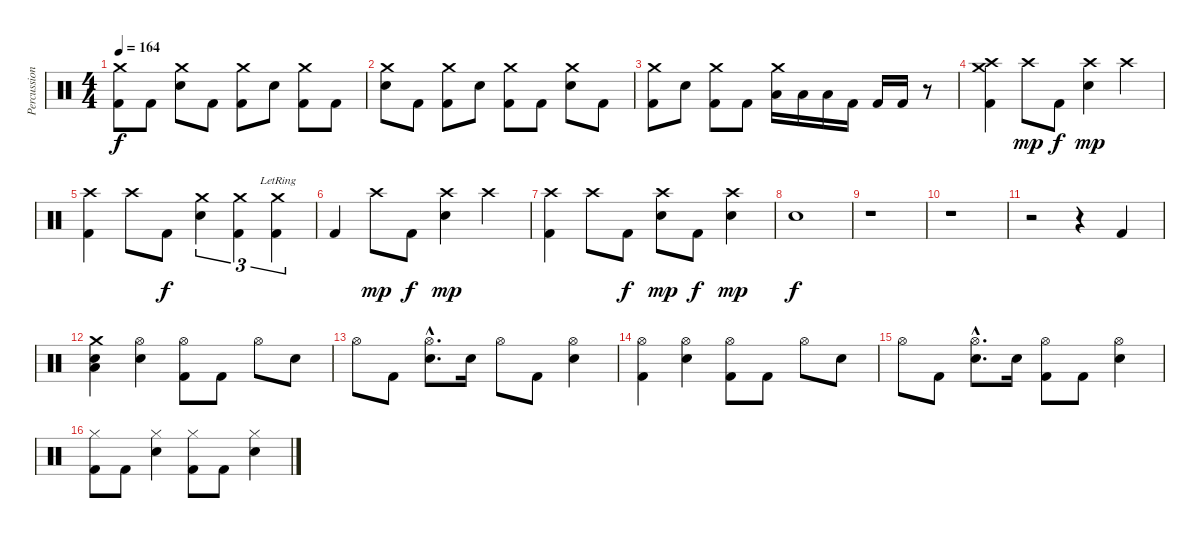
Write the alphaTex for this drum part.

\track ("Percussions" "Percussion") {instrument percussion}
\staff {score}
\articulation defaults
\ts (4 4)
\tempo 164
\clef neutral
\ks c
("Kick (hit) 2" "Crash medium (hit)").8{dy f} "Kick (hit) 2".8 ("Snare (hit) 2" "Crash medium (hit)").8 "Kick (hit) 2".8 ("Kick (hit) 2" "Crash medium (hit)").8 "Snare (hit) 2".8 ("Kick (hit) 2" "Crash medium (hit)").8 "Kick (hit) 2".8 |
("Snare (hit) 2" "Crash medium (hit)").8 "Kick (hit) 2".8 ("Kick (hit) 2" "Crash medium (hit)").8 "Snare (hit) 2".8 ("Kick (hit) 2" "Crash medium (hit)").8 "Kick (hit) 2".8 ("Snare (hit) 2" "Crash medium (hit)").8 "Kick (hit) 2".8 |
("Kick (hit) 2" "Crash medium (hit)").8 "Snare (hit) 2".8 ("Kick (hit) 2" "Crash medium (hit)").8 "Kick (hit) 2".8 ("Low Tom (hit)" "Crash medium (hit)").16 "Low Tom (hit)".16 "Low Tom (hit)".16 "Kick (hit) 2".16 "Kick (hit) 2".16 "Kick (hit) 2".16 r.8 |
("Kick (hit) 2" "Crash high (hit)" "Crash medium (hit)").4 "Crash high (hit)".8{dy mp} "Kick (hit) 2".8{dy f} ("Snare (hit) 2" "Crash high (hit)").4{dy mp} "Crash high (hit)".4 |
("Kick (hit) 2" "Crash high (hit)").4 "Crash high (hit)".8 "Kick (hit) 2".8{dy f} ("Snare (hit) 2" "Crash medium (hit)").4{tu (3 2)} ("Kick (hit) 2" "Crash medium (hit)").4{tu (3 2)} ("Kick (hit) 2" "Crash medium (hit)"{lr}).4{tu (3 2)} |
"Kick (hit) 2".4 "Crash high (hit)".8{dy mp} "Kick (hit) 2".8{dy f} ("Snare (hit) 2" "Crash high (hit)").4{dy mp} "Crash high (hit)".4 |
("Kick (hit) 2" "Crash high (hit)").4 "Crash high (hit)".8 "Kick (hit) 2".8{dy f} ("Snare (hit) 2" "Crash high (hit)").8{dy mp} "Kick (hit) 2".8{dy f} ("Snare (hit) 2" "Crash high (hit)").4{dy mp} |
"Snare (hit) 2".1{dy f} |
r.1 |
r.1 |
r.2 r.4 "Kick (hit) 2".4 |
("Snare (hit) 2" "Low Tom (hit)" "Crash medium (hit)").4 ("Snare (hit) 2" "Hi-Hat (open)").4 ("Kick (hit) 2" "Hi-Hat (open)").8 "Kick (hit) 2".8 "Hi-Hat (open)".8 "Snare (hit) 2".8 |
"Hi-Hat (open)".8 "Kick (hit) 2".8 ("Snare (hit) 2"{hac} "Hi-Hat (open)"{hac}).8{d} "Snare (hit) 2".16 "Hi-Hat (open)".8 "Kick (hit) 2".8 ("Snare (hit) 2" "Hi-Hat (open)").4 |
("Kick (hit) 2" "Hi-Hat (open)").4 ("Snare (hit) 2" "Hi-Hat (open)").4 ("Kick (hit) 2" "Hi-Hat (open)").8 "Kick (hit) 2".8 "Hi-Hat (open)".8 "Snare (hit) 2".8 |
"Hi-Hat (open)".8 "Kick (hit) 2".8 ("Snare (hit) 2"{hac} "Hi-Hat (open)"{hac}).8{d} "Snare (hit) 2".16 ("Kick (hit) 2" "Hi-Hat (open)").8 "Kick (hit) 2".8 ("Snare (hit) 2" "Hi-Hat (open)").4 |
("Kick (hit) 2" "Hi-Hat (closed)").8 "Kick (hit) 2".8 ("Snare (hit) 2" "Hi-Hat (closed)").4 ("Kick (hit) 2" "Hi-Hat (closed)").8 "Kick (hit) 2".8 ("Snare (hit) 2" "Hi-Hat (closed)").4
